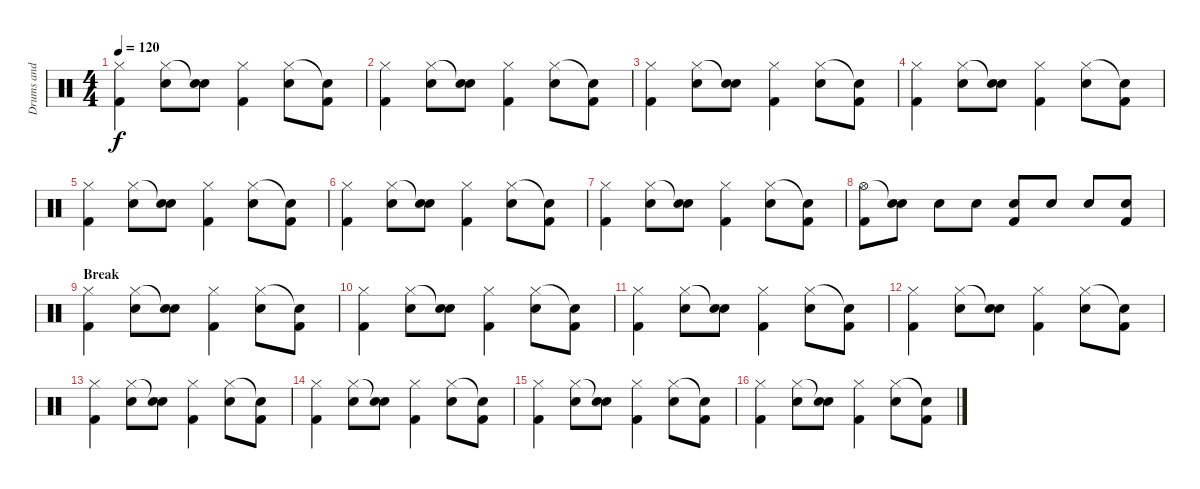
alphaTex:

\track ("Drums and Percussion" "Drums and ") {instrument percussion}
\staff {score}
\articulation defaults
\ts (4 4)
\tempo 120
\clef neutral
\ks c
("Hi-Hat (closed)" "Kick (hit) 2").4{dy f} ("Hi-Hat (closed)" "Snare (hit) 2").8 ("Snare (hit)"{t} "Snare (hit) 2").8 ("Hi-Hat (closed)" "Kick (hit) 2").4 ("Hi-Hat (closed)" "Snare (hit) 2").8 ("Snare (hit)"{t} "Kick (hit) 2").8 |
("Hi-Hat (closed)" "Kick (hit) 2").4 ("Hi-Hat (closed)" "Snare (hit) 2").8 ("Snare (hit)"{t} "Snare (hit) 2").8 ("Hi-Hat (closed)" "Kick (hit) 2").4 ("Hi-Hat (closed)" "Snare (hit) 2").8 ("Snare (hit)"{t} "Kick (hit) 2").8 |
("Hi-Hat (closed)" "Kick (hit) 2").4 ("Hi-Hat (closed)" "Snare (hit) 2").8 ("Snare (hit)"{t} "Snare (hit) 2").8 ("Hi-Hat (closed)" "Kick (hit) 2").4 ("Hi-Hat (closed)" "Snare (hit) 2").8 ("Snare (hit)"{t} "Kick (hit) 2").8 |
("Hi-Hat (closed)" "Kick (hit) 2").4 ("Hi-Hat (closed)" "Snare (hit) 2").8 ("Snare (hit)"{t} "Snare (hit) 2").8 ("Hi-Hat (closed)" "Kick (hit) 2").4 ("Hi-Hat (closed)" "Snare (hit) 2").8 ("Snare (hit)"{t} "Kick (hit) 2").8 |
("Hi-Hat (closed)" "Kick (hit) 2").4 ("Hi-Hat (closed)" "Snare (hit) 2").8 ("Snare (hit)"{t} "Snare (hit) 2").8 ("Hi-Hat (closed)" "Kick (hit) 2").4 ("Hi-Hat (closed)" "Snare (hit) 2").8 ("Snare (hit)"{t} "Kick (hit) 2").8 |
("Hi-Hat (closed)" "Kick (hit) 2").4 ("Hi-Hat (closed)" "Snare (hit) 2").8 ("Snare (hit)"{t} "Snare (hit) 2").8 ("Hi-Hat (closed)" "Kick (hit) 2").4 ("Hi-Hat (closed)" "Snare (hit) 2").8 ("Snare (hit)"{t} "Kick (hit) 2").8 |
("Hi-Hat (closed)" "Kick (hit) 2").4 ("Hi-Hat (closed)" "Snare (hit) 2").8 ("Snare (hit)"{t} "Snare (hit) 2").8 ("Hi-Hat (closed)" "Kick (hit) 2").4 ("Hi-Hat (closed)" "Snare (hit) 2").8 ("Snare (hit)"{t} "Kick (hit) 2").8 |
("Hi-Hat (open)" "Kick (hit) 2").8 ("Snare (hit)"{t} "Snare (hit) 2").8 "Snare (hit) 2".8 "Snare (hit) 2".8 ("Snare (hit) 2" "Kick (hit) 2").8 "Snare (hit) 2".8 "Snare (hit) 2".8 ("Snare (hit) 2" "Kick (hit) 2").8 |
\section ("" "Break")
("Hi-Hat (closed)" "Kick (hit) 2").4 ("Hi-Hat (closed)" "Snare (hit) 2").8 ("Snare (hit)"{t} "Snare (hit) 2").8 ("Hi-Hat (closed)" "Kick (hit) 2").4 ("Hi-Hat (closed)" "Snare (hit) 2").8 ("Snare (hit)"{t} "Kick (hit) 2").8 |
("Hi-Hat (closed)" "Kick (hit) 2").4 ("Hi-Hat (closed)" "Snare (hit) 2").8 ("Snare (hit)"{t} "Snare (hit) 2").8 ("Hi-Hat (closed)" "Kick (hit) 2").4 ("Hi-Hat (closed)" "Snare (hit) 2").8 ("Snare (hit)"{t} "Kick (hit) 2").8 |
("Hi-Hat (closed)" "Kick (hit) 2").4 ("Hi-Hat (closed)" "Snare (hit) 2").8 ("Snare (hit)"{t} "Snare (hit) 2").8 ("Hi-Hat (closed)" "Kick (hit) 2").4 ("Hi-Hat (closed)" "Snare (hit) 2").8 ("Snare (hit)"{t} "Kick (hit) 2").8 |
("Hi-Hat (closed)" "Kick (hit) 2").4 ("Hi-Hat (closed)" "Snare (hit) 2").8 ("Snare (hit)"{t} "Snare (hit) 2").8 ("Hi-Hat (closed)" "Kick (hit) 2").4 ("Hi-Hat (closed)" "Snare (hit) 2").8 ("Snare (hit)"{t} "Kick (hit) 2").8 |
("Hi-Hat (closed)" "Kick (hit) 2").4 ("Hi-Hat (closed)" "Snare (hit) 2").8 ("Snare (hit)"{t} "Snare (hit) 2").8 ("Hi-Hat (closed)" "Kick (hit) 2").4 ("Hi-Hat (closed)" "Snare (hit) 2").8 ("Snare (hit)"{t} "Kick (hit) 2").8 |
("Hi-Hat (closed)" "Kick (hit) 2").4 ("Hi-Hat (closed)" "Snare (hit) 2").8 ("Snare (hit)"{t} "Snare (hit) 2").8 ("Hi-Hat (closed)" "Kick (hit) 2").4 ("Hi-Hat (closed)" "Snare (hit) 2").8 ("Snare (hit)"{t} "Kick (hit) 2").8 |
("Hi-Hat (closed)" "Kick (hit) 2").4 ("Hi-Hat (closed)" "Snare (hit) 2").8 ("Snare (hit)"{t} "Snare (hit) 2").8 ("Hi-Hat (closed)" "Kick (hit) 2").4 ("Hi-Hat (closed)" "Snare (hit) 2").8 ("Snare (hit)"{t} "Kick (hit) 2").8 |
("Hi-Hat (closed)" "Kick (hit) 2").4 ("Hi-Hat (closed)" "Snare (hit) 2").8 ("Snare (hit)"{t} "Snare (hit) 2").8 ("Hi-Hat (closed)" "Kick (hit) 2").4 ("Hi-Hat (closed)" "Snare (hit) 2").8 ("Snare (hit)"{t} "Kick (hit) 2").8
